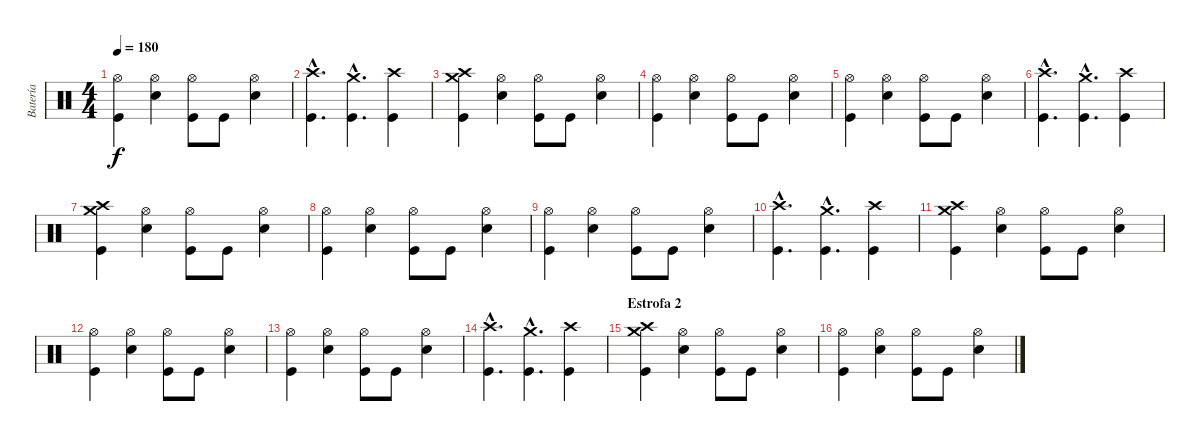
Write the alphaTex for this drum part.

\track ("Batería" "Batería") {instrument percussion}
\staff {score}
\articulation defaults
\ts (4 4)
\tempo 180
\clef neutral
\ks c
("Hi-Hat (open)" "Kick (hit)").4{dy f} ("Hi-Hat (open)" "Snare (hit) 2").4 ("Hi-Hat (open)" "Kick (hit)").8 "Kick (hit)".8 ("Hi-Hat (open)" "Snare (hit) 2").4 |
("Crash high (hit)"{hac} "Kick (hit)"{hac}).4{d} ("Crash medium (hit)"{hac} "Kick (hit)"{hac}).4{d} ("Crash high (hit)" "Kick (hit)").4 |
("Crash medium (hit)" "Crash high (hit)" "Kick (hit)").4 ("Hi-Hat (open)" "Snare (hit) 2").4 ("Hi-Hat (open)" "Kick (hit)").8 "Kick (hit)".8 ("Hi-Hat (open)" "Snare (hit) 2").4 |
("Hi-Hat (open)" "Kick (hit)").4 ("Hi-Hat (open)" "Snare (hit) 2").4 ("Hi-Hat (open)" "Kick (hit)").8 "Kick (hit)".8 ("Hi-Hat (open)" "Snare (hit) 2").4 |
("Hi-Hat (open)" "Kick (hit)").4 ("Hi-Hat (open)" "Snare (hit) 2").4 ("Hi-Hat (open)" "Kick (hit)").8 "Kick (hit)".8 ("Hi-Hat (open)" "Snare (hit) 2").4 |
("Crash high (hit)"{hac} "Kick (hit)"{hac}).4{d} ("Crash medium (hit)"{hac} "Kick (hit)"{hac}).4{d} ("Crash high (hit)" "Kick (hit)").4 |
("Crash medium (hit)" "Crash high (hit)" "Kick (hit)").4 ("Hi-Hat (open)" "Snare (hit) 2").4 ("Hi-Hat (open)" "Kick (hit)").8 "Kick (hit)".8 ("Hi-Hat (open)" "Snare (hit) 2").4 |
("Hi-Hat (open)" "Kick (hit)").4 ("Hi-Hat (open)" "Snare (hit) 2").4 ("Hi-Hat (open)" "Kick (hit)").8 "Kick (hit)".8 ("Hi-Hat (open)" "Snare (hit) 2").4 |
("Hi-Hat (open)" "Kick (hit)").4 ("Hi-Hat (open)" "Snare (hit) 2").4 ("Hi-Hat (open)" "Kick (hit)").8 "Kick (hit)".8 ("Hi-Hat (open)" "Snare (hit) 2").4 |
("Crash high (hit)"{hac} "Kick (hit)"{hac}).4{d} ("Crash medium (hit)"{hac} "Kick (hit)"{hac}).4{d} ("Crash high (hit)" "Kick (hit)").4 |
("Crash medium (hit)" "Crash high (hit)" "Kick (hit)").4 ("Hi-Hat (open)" "Snare (hit) 2").4 ("Hi-Hat (open)" "Kick (hit)").8 "Kick (hit)".8 ("Hi-Hat (open)" "Snare (hit) 2").4 |
("Hi-Hat (open)" "Kick (hit)").4 ("Hi-Hat (open)" "Snare (hit) 2").4 ("Hi-Hat (open)" "Kick (hit)").8 "Kick (hit)".8 ("Hi-Hat (open)" "Snare (hit) 2").4 |
("Hi-Hat (open)" "Kick (hit)").4 ("Hi-Hat (open)" "Snare (hit) 2").4 ("Hi-Hat (open)" "Kick (hit)").8 "Kick (hit)".8 ("Hi-Hat (open)" "Snare (hit) 2").4 |
("Crash high (hit)"{hac} "Kick (hit)"{hac}).4{d} ("Crash medium (hit)"{hac} "Kick (hit)"{hac}).4{d} ("Crash high (hit)" "Kick (hit)").4 |
\section ("" "Estrofa 2")
("Crash medium (hit)" "Crash high (hit)" "Kick (hit)").4 ("Hi-Hat (open)" "Snare (hit) 2").4 ("Hi-Hat (open)" "Kick (hit)").8 "Kick (hit)".8 ("Hi-Hat (open)" "Snare (hit) 2").4 |
("Hi-Hat (open)" "Kick (hit)").4 ("Hi-Hat (open)" "Snare (hit) 2").4 ("Hi-Hat (open)" "Kick (hit)").8 "Kick (hit)".8 ("Hi-Hat (open)" "Snare (hit) 2").4
